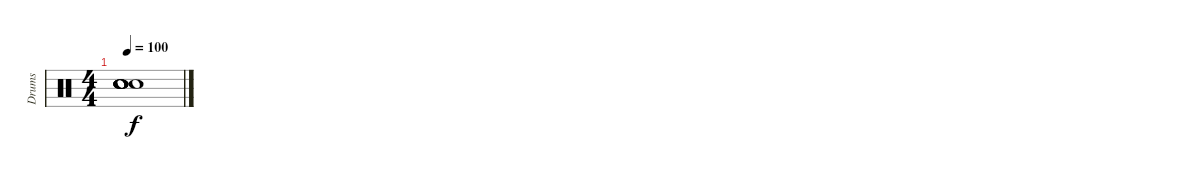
\track ("Drums" "Drums") {instrument percussion}
\staff {score}
\articulation defaults
\ts (4 4)
\tempo 100
\clef neutral
\ks c
("Snare (hit)"{t} "Snare (hit)"{t} "Snare (hit)"{t} "Snare (hit)"{t} "Snare (hit)"{t} "Snare (hit)"{t}).1{dy f}
